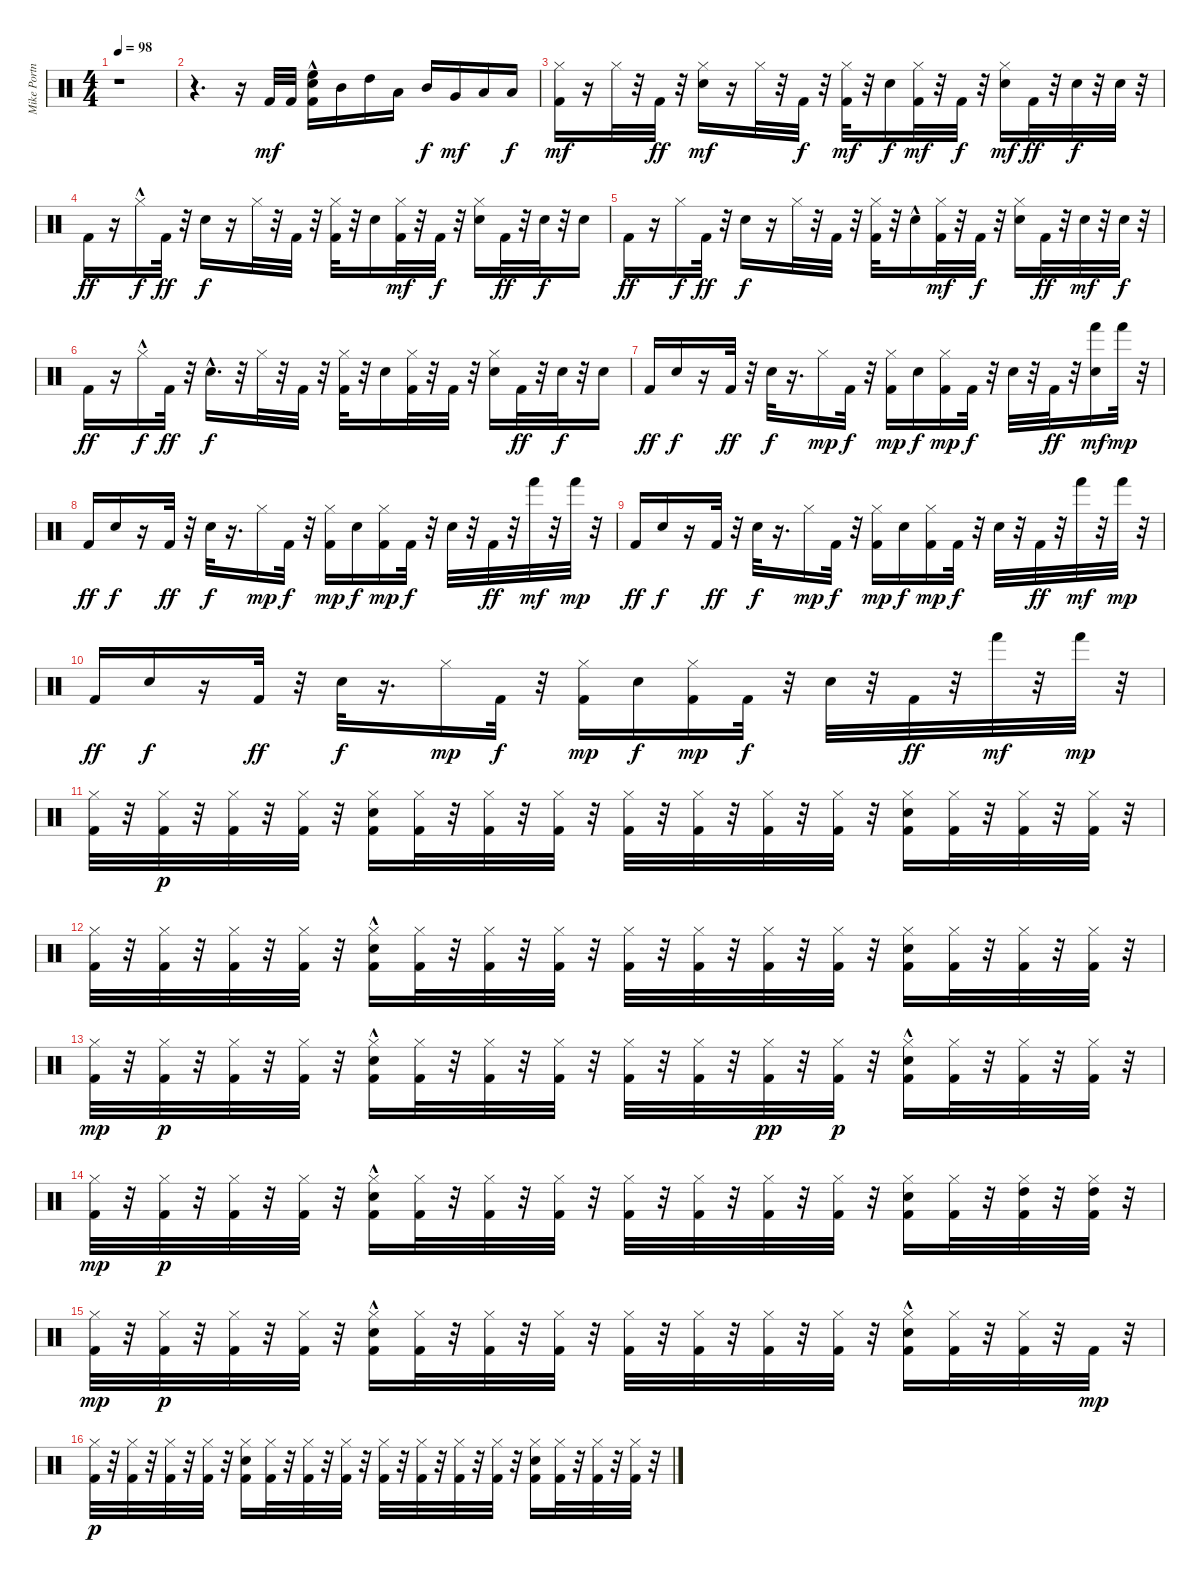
\track ("Mike Portnoy" "Mike Portn") {instrument percussion}
\staff {score}
\articulation defaults
\ts (4 4)
\tempo 98
\clef neutral
\ks c
r.1{dy mf} |
r.4{d} r.16 "Kick (hit) 2".32 "Kick (hit) 2".32 ("Kick (hit) 2" "Electric Snare (hit)" "High Floor Tom (hit)"{hac}).16 "Mid Tom (hit)".16 "High Tom (hit)".16 "Low Tom (hit)".16 "Mid Tom (hit)".16{dy f} "Very Low Tom (hit)".16{dy mf} "Low Tom (hit)".16 "Low Floor Tom (hit)".16{dy f} |
("Kick (hit) 2" "Hi-Hat (closed)").16{dy mf} r.16 "Hi-Hat (closed)".32 r.32 "Kick (hit) 2".32{dy ff} r.32 ("Electric Snare (hit)" "Hi-Hat (closed)").16{dy mf} r.16 "Hi-Hat (closed)".32 r.32 "Kick (hit) 2".32{dy f} r.32 ("Kick (hit) 2" "Hi-Hat (closed)").32{dy mf} r.32 "Electric Snare (hit)".16{dy f} ("Kick (hit) 2" "Hi-Hat (closed)").32{dy mf} r.32 "Kick (hit) 2".32{dy f} r.32 ("Electric Snare (hit)" "Hi-Hat (closed)").16{dy mf} "Kick (hit) 2".32{dy ff} r.32 "Electric Snare (hit)".32{dy f} r.32 "Electric Snare (hit)".32 r.32 |
"Kick (hit) 2".16{dy ff} r.16 "Hi-Hat (closed)"{hac}.16{dy f} "Kick (hit) 2".32{dy ff} r.32 "Electric Snare (hit)".16{dy f} r.16 "Hi-Hat (closed)".32 r.32 "Kick (hit) 2".32 r.32 ("Kick (hit) 2" "Hi-Hat (closed)").32 r.32 "Electric Snare (hit)".16 ("Kick (hit) 2" "Hi-Hat (closed)").32{dy mf} r.32 "Kick (hit) 2".32{dy f} r.32 ("Electric Snare (hit)" "Hi-Hat (closed)").16 "Kick (hit) 2".32{dy ff} r.32 "Electric Snare (hit)".32{dy f} r.32 "Electric Snare (hit)".16 |
"Kick (hit) 2".16{dy ff} r.16 "Hi-Hat (closed)".16{dy f} "Kick (hit) 2".32{dy ff} r.32 "Electric Snare (hit)".16{dy f} r.16 "Hi-Hat (closed)".32 r.32 "Kick (hit) 2".32 r.32 ("Kick (hit) 2" "Hi-Hat (closed)").32 r.32 "Electric Snare (hit)"{hac}.16 ("Kick (hit) 2" "Hi-Hat (closed)").32{dy mf} r.32 "Kick (hit) 2".32{dy f} r.32 ("Electric Snare (hit)" "Hi-Hat (closed)").16 "Kick (hit) 2".32{dy ff} r.32 "Electric Snare (hit)".32{dy mf} r.32 "Electric Snare (hit)".32{dy f} r.32 |
"Kick (hit) 2".16{dy ff} r.16 "Hi-Hat (closed)"{hac}.16{dy f} "Kick (hit) 2".32{dy ff} r.32 "Electric Snare (hit)"{hac}.16{d dy f} r.32 "Hi-Hat (closed)".32 r.32 "Kick (hit) 2".32 r.32 ("Kick (hit) 2" "Hi-Hat (closed)").32 r.32 "Electric Snare (hit)".16 ("Kick (hit) 2" "Hi-Hat (closed)").32 r.32 "Kick (hit) 2".32 r.32 ("Electric Snare (hit)" "Hi-Hat (closed)").16 "Kick (hit) 2".32{dy ff} r.32 "Electric Snare (hit)".32{dy f} r.32 "Electric Snare (hit)".16 |
"Kick (hit) 2".16{dy ff} "Electric Snare (hit)".16{dy f} r.16 "Kick (hit) 2".32{dy ff} r.32 "Electric Snare (hit)".32{dy f} r.16{d} "Hi-Hat (closed)".16{dy mp} "Kick (hit) 2".32{dy f} r.32 ("Kick (hit) 2" "Hi-Hat (closed)").16{dy mp} "Electric Snare (hit)".16{dy f} ("Kick (hit) 2" "Hi-Hat (closed)").16{dy mp} "Kick (hit) 2".32{dy f} r.32 "Electric Snare (hit)".32 r.32 "Kick (hit) 2".32{dy ff} r.32 ("Electric Snare (hit)" "Hand (hit)").16{dy mf} "Hand (hit)".32{dy mp} r.32 |
"Kick (hit) 2".16{dy ff} "Electric Snare (hit)".16{dy f} r.16 "Kick (hit) 2".32{dy ff} r.32 "Electric Snare (hit)".32{dy f} r.16{d} "Hi-Hat (closed)".16{dy mp} "Kick (hit) 2".32{dy f} r.32 ("Kick (hit) 2" "Hi-Hat (closed)").16{dy mp} "Electric Snare (hit)".16{dy f} ("Kick (hit) 2" "Hi-Hat (closed)").16{dy mp} "Kick (hit) 2".32{dy f} r.32 "Electric Snare (hit)".32 r.32 "Kick (hit) 2".32{dy ff} r.32 "Hand (hit)".32{dy mf} r.32 "Hand (hit)".32{dy mp} r.32 |
"Kick (hit) 2".16{dy ff} "Electric Snare (hit)".16{dy f} r.16 "Kick (hit) 2".32{dy ff} r.32 "Electric Snare (hit)".32{dy f} r.16{d} "Hi-Hat (closed)".16{dy mp} "Kick (hit) 2".32{dy f} r.32 ("Kick (hit) 2" "Hi-Hat (closed)").16{dy mp} "Electric Snare (hit)".16{dy f} ("Kick (hit) 2" "Hi-Hat (closed)").16{dy mp} "Kick (hit) 2".32{dy f} r.32 "Electric Snare (hit)".32 r.32 "Kick (hit) 2".32{dy ff} r.32 "Hand (hit)".32{dy mf} r.32 "Hand (hit)".32{dy mp} r.32 |
"Kick (hit) 2".16{dy ff} "Electric Snare (hit)".16{dy f} r.16 "Kick (hit) 2".32{dy ff} r.32 "Electric Snare (hit)".32{dy f} r.16{d} "Hi-Hat (closed)".16{dy mp} "Kick (hit) 2".32{dy f} r.32 ("Kick (hit) 2" "Hi-Hat (closed)").16{dy mp} "Electric Snare (hit)".16{dy f} ("Kick (hit) 2" "Hi-Hat (closed)").16{dy mp} "Kick (hit) 2".32{dy f} r.32 "Electric Snare (hit)".32 r.32 "Kick (hit) 2".32{dy ff} r.32 "Hand (hit)".32{dy mf} r.32 "Hand (hit)".32{dy mp} r.32 |
("Kick (hit) 2" "Hi-Hat (closed)").32 r.32 ("Kick (hit) 2" "Hi-Hat (closed)").32{dy p} r.32 ("Kick (hit) 2" "Hi-Hat (closed)").32 r.32 ("Kick (hit) 2" "Hi-Hat (closed)").32 r.32 ("Kick (hit) 2" "Electric Snare (hit)" "Hi-Hat (closed)").16 ("Kick (hit) 2" "Hi-Hat (closed)").32 r.32 ("Kick (hit) 2" "Hi-Hat (closed)").32 r.32 ("Kick (hit) 2" "Hi-Hat (closed)").32 r.32 ("Kick (hit) 2" "Hi-Hat (closed)").32 r.32 ("Kick (hit) 2" "Hi-Hat (closed)").32 r.32 ("Kick (hit) 2" "Hi-Hat (closed)").32 r.32 ("Kick (hit) 2" "Hi-Hat (closed)").32 r.32 ("Kick (hit) 2" "Electric Snare (hit)" "Hi-Hat (closed)").16 ("Kick (hit) 2" "Hi-Hat (closed)").32 r.32 ("Kick (hit) 2" "Hi-Hat (closed)").32 r.32 ("Kick (hit) 2" "Hi-Hat (closed)").32 r.32 |
("Kick (hit) 2" "Hi-Hat (closed)").32 r.32 ("Kick (hit) 2" "Hi-Hat (closed)").32 r.32 ("Kick (hit) 2" "Hi-Hat (closed)").32 r.32 ("Kick (hit) 2" "Hi-Hat (closed)").32 r.32 ("Kick (hit) 2" "Electric Snare (hit)"{hac} "Hi-Hat (closed)").16 ("Kick (hit) 2" "Hi-Hat (closed)").32 r.32 ("Kick (hit) 2" "Hi-Hat (closed)").32 r.32 ("Kick (hit) 2" "Hi-Hat (closed)").32 r.32 ("Kick (hit) 2" "Hi-Hat (closed)").32 r.32 ("Kick (hit) 2" "Hi-Hat (closed)").32 r.32 ("Kick (hit) 2" "Hi-Hat (closed)").32 r.32 ("Kick (hit) 2" "Hi-Hat (closed)").32 r.32 ("Kick (hit) 2" "Electric Snare (hit)" "Hi-Hat (closed)").16 ("Kick (hit) 2" "Hi-Hat (closed)").32 r.32 ("Kick (hit) 2" "Hi-Hat (closed)").32 r.32 ("Kick (hit) 2" "Hi-Hat (closed)").32 r.32 |
("Kick (hit) 2" "Hi-Hat (closed)").32{dy mp} r.32 ("Kick (hit) 2" "Hi-Hat (closed)").32{dy p} r.32 ("Kick (hit) 2" "Hi-Hat (closed)").32 r.32 ("Kick (hit) 2" "Hi-Hat (closed)").32 r.32 ("Kick (hit) 2" "Electric Snare (hit)"{hac} "Hi-Hat (closed)").16 ("Kick (hit) 2" "Hi-Hat (closed)").32 r.32 ("Kick (hit) 2" "Hi-Hat (closed)").32 r.32 ("Kick (hit) 2" "Hi-Hat (closed)").32 r.32 ("Kick (hit) 2" "Hi-Hat (closed)").32 r.32 ("Kick (hit) 2" "Hi-Hat (closed)").32 r.32 ("Kick (hit) 2" "Hi-Hat (closed)").32{dy pp} r.32 ("Kick (hit) 2" "Hi-Hat (closed)").32{dy p} r.32 ("Kick (hit) 2" "Electric Snare (hit)"{hac} "Hi-Hat (closed)").16 ("Kick (hit) 2" "Hi-Hat (closed)").32 r.32 ("Kick (hit) 2" "Hi-Hat (closed)").32 r.32 ("Kick (hit) 2" "Hi-Hat (closed)").32 r.32 |
("Kick (hit) 2" "Hi-Hat (closed)").32{dy mp} r.32 ("Kick (hit) 2" "Hi-Hat (closed)").32{dy p} r.32 ("Kick (hit) 2" "Hi-Hat (closed)").32 r.32 ("Kick (hit) 2" "Hi-Hat (closed)").32 r.32 ("Kick (hit) 2" "Electric Snare (hit)"{hac} "Hi-Hat (closed)").16 ("Kick (hit) 2" "Hi-Hat (closed)").32 r.32 ("Kick (hit) 2" "Hi-Hat (closed)").32 r.32 ("Kick (hit) 2" "Hi-Hat (closed)").32 r.32 ("Kick (hit) 2" "Hi-Hat (closed)").32 r.32 ("Kick (hit) 2" "Hi-Hat (closed)").32 r.32 ("Kick (hit) 2" "Hi-Hat (closed)").32 r.32 ("Kick (hit) 2" "Hi-Hat (closed)").32 r.32 ("Kick (hit) 2" "Electric Snare (hit)" "Hi-Hat (closed)").16 ("Kick (hit) 2" "Hi-Hat (closed)").32 r.32 ("Kick (hit) 2" "High Tom (hit)" "Hi-Hat (closed)").32 r.32 ("Kick (hit) 2" "High Tom (hit)" "Hi-Hat (closed)").32 r.32 |
("Kick (hit) 2" "Hi-Hat (closed)").32{dy mp} r.32 ("Kick (hit) 2" "Hi-Hat (closed)").32{dy p} r.32 ("Kick (hit) 2" "Hi-Hat (closed)").32 r.32 ("Kick (hit) 2" "Hi-Hat (closed)").32 r.32 ("Kick (hit) 2" "Electric Snare (hit)"{hac} "Hi-Hat (closed)").16 ("Kick (hit) 2" "Hi-Hat (closed)").32 r.32 ("Kick (hit) 2" "Hi-Hat (closed)").32 r.32 ("Kick (hit) 2" "Hi-Hat (closed)").32 r.32 ("Kick (hit) 2" "Hi-Hat (closed)").32 r.32 ("Kick (hit) 2" "Hi-Hat (closed)").32 r.32 ("Kick (hit) 2" "Hi-Hat (closed)").32 r.32 ("Kick (hit) 2" "Hi-Hat (closed)").32 r.32 ("Kick (hit) 2" "Electric Snare (hit)"{hac} "Hi-Hat (closed)").16 ("Kick (hit) 2" "Hi-Hat (closed)").32 r.32 ("Kick (hit) 2" "Hi-Hat (closed)").32 r.32 "Kick (hit) 2".32{dy mp} r.32 |
("Kick (hit) 2" "Hi-Hat (closed)").32{dy p} r.32 ("Kick (hit) 2" "Hi-Hat (closed)").32 r.32 ("Kick (hit) 2" "Hi-Hat (closed)").32 r.32 ("Kick (hit) 2" "Hi-Hat (closed)").32 r.32 ("Kick (hit) 2" "Electric Snare (hit)" "Hi-Hat (closed)").16 ("Kick (hit) 2" "Hi-Hat (closed)").32 r.32 ("Kick (hit) 2" "Hi-Hat (closed)").32 r.32 ("Kick (hit) 2" "Hi-Hat (closed)").32 r.32 ("Kick (hit) 2" "Hi-Hat (closed)").32 r.32 ("Kick (hit) 2" "Hi-Hat (closed)").32 r.32 ("Kick (hit) 2" "Hi-Hat (closed)").32 r.32 ("Kick (hit) 2" "Hi-Hat (closed)").32 r.32 ("Kick (hit) 2" "Electric Snare (hit)" "Hi-Hat (closed)").16 ("Kick (hit) 2" "Hi-Hat (closed)").32 r.32 ("Kick (hit) 2" "Hi-Hat (closed)").32 r.32 ("Kick (hit) 2" "Hi-Hat (closed)").32 r.32
